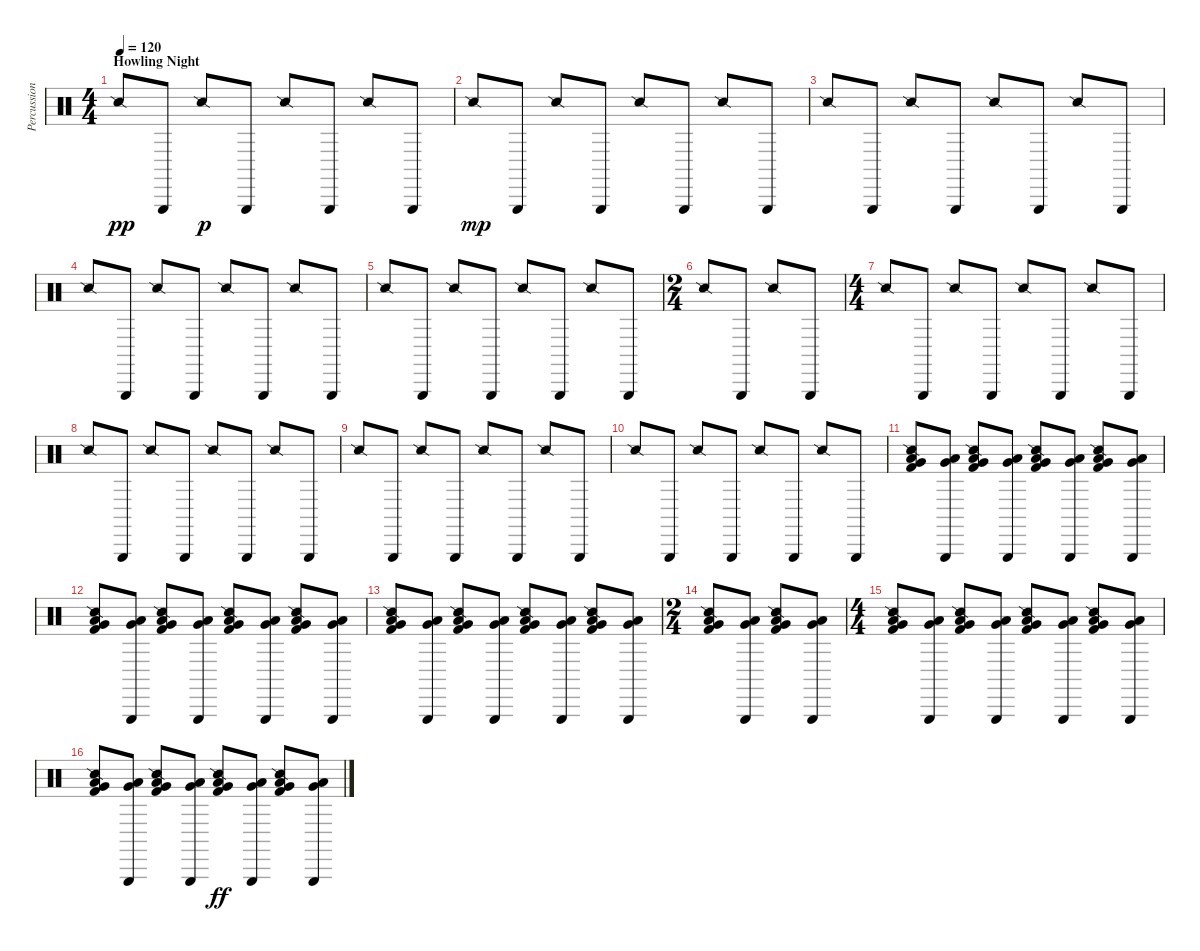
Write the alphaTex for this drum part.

\track ("Percussion" "Percussion") {instrument percussion}
\staff {score}
\articulation defaults
\ts (4 4)
\section ("" "Howling Night")
\tempo 120
\clef neutral
\ks c "Snare (side stick) 2".8{dy pp} "Triangle (hit)".8 "Snare (side stick) 2".8{dy p} "Triangle (hit)".8 "Snare (side stick) 2".8 "Triangle (hit)".8 "Snare (side stick) 2".8 "Triangle (hit)".8
|
"Snare (side stick) 2".8{dy mp} "Triangle (hit)".8 "Snare (side stick) 2".8 "Triangle (hit)".8 "Snare (side stick) 2".8 "Triangle (hit)".8 "Snare (side stick) 2".8 "Triangle (hit)".8 |
"Snare (side stick) 2".8 "Triangle (hit)".8 "Snare (side stick) 2".8 "Triangle (hit)".8 "Snare (side stick) 2".8 "Triangle (hit)".8 "Snare (side stick) 2".8 "Triangle (hit)".8 |
"Snare (side stick) 2".8 "Triangle (hit)".8 "Snare (side stick) 2".8 "Triangle (hit)".8 "Snare (side stick) 2".8 "Triangle (hit)".8 "Snare (side stick) 2".8 "Triangle (hit)".8 |
"Snare (side stick) 2".8 "Triangle (hit)".8 "Snare (side stick) 2".8 "Triangle (hit)".8 "Snare (side stick) 2".8 "Triangle (hit)".8 "Snare (side stick) 2".8 "Triangle (hit)".8 |
\ts (2 4)
"Snare (side stick) 2".8 "Triangle (hit)".8 "Snare (side stick) 2".8 "Triangle (hit)".8 |
\ts (4 4)
"Snare (side stick) 2".8 "Triangle (hit)".8 "Snare (side stick) 2".8 "Triangle (hit)".8 "Snare (side stick) 2".8 "Triangle (hit)".8 "Snare (side stick) 2".8 "Triangle (hit)".8 |
"Snare (side stick) 2".8 "Triangle (hit)".8 "Snare (side stick) 2".8 "Triangle (hit)".8 "Snare (side stick) 2".8 "Triangle (hit)".8 "Snare (side stick) 2".8 "Triangle (hit)".8 |
"Snare (side stick) 2".8 "Triangle (hit)".8 "Snare (side stick) 2".8 "Triangle (hit)".8 "Snare (side stick) 2".8 "Triangle (hit)".8 "Snare (side stick) 2".8 "Triangle (hit)".8 |
"Snare (side stick) 2".8 "Triangle (hit)".8 "Snare (side stick) 2".8 "Triangle (hit)".8 "Snare (side stick) 2".8 "Triangle (hit)".8 "Snare (side stick) 2".8 "Triangle (hit)".8 |
("Snare (side stick) 2" "Low Tom (hit)" "Very Low Tom (hit)" "Kick (hit) 2").8 ("Triangle (hit)" "Low Tom (hit)" "Very Low Tom (hit)").8 ("Snare (side stick) 2" "Low Tom (hit)" "Very Low Tom (hit)" "Kick (hit) 2").8 ("Triangle (hit)" "Low Tom (hit)" "Very Low Tom (hit)").8 ("Snare (side stick) 2" "Low Tom (hit)" "Very Low Tom (hit)" "Kick (hit) 2").8 ("Triangle (hit)" "Low Tom (hit)" "Very Low Tom (hit)").8 ("Snare (side stick) 2" "Low Tom (hit)" "Very Low Tom (hit)" "Kick (hit) 2").8 ("Triangle (hit)" "Low Tom (hit)" "Very Low Tom (hit)").8 |
("Snare (side stick) 2" "Low Tom (hit)" "Very Low Tom (hit)" "Kick (hit) 2").8 ("Triangle (hit)" "Low Tom (hit)" "Very Low Tom (hit)").8 ("Snare (side stick) 2" "Low Tom (hit)" "Very Low Tom (hit)" "Kick (hit) 2").8 ("Triangle (hit)" "Low Tom (hit)" "Very Low Tom (hit)").8 ("Snare (side stick) 2" "Low Tom (hit)" "Very Low Tom (hit)" "Kick (hit) 2").8 ("Triangle (hit)" "Low Tom (hit)" "Very Low Tom (hit)").8 ("Snare (side stick) 2" "Low Tom (hit)" "Very Low Tom (hit)" "Kick (hit) 2").8 ("Triangle (hit)" "Low Tom (hit)" "Very Low Tom (hit)").8 |
("Snare (side stick) 2" "Low Tom (hit)" "Very Low Tom (hit)" "Kick (hit) 2").8 ("Triangle (hit)" "Low Tom (hit)" "Very Low Tom (hit)").8 ("Snare (side stick) 2" "Low Tom (hit)" "Very Low Tom (hit)" "Kick (hit) 2").8 ("Triangle (hit)" "Low Tom (hit)" "Very Low Tom (hit)").8 ("Snare (side stick) 2" "Low Tom (hit)" "Very Low Tom (hit)" "Kick (hit) 2").8 ("Triangle (hit)" "Low Tom (hit)" "Very Low Tom (hit)").8 ("Snare (side stick) 2" "Low Tom (hit)" "Very Low Tom (hit)" "Kick (hit) 2").8 ("Triangle (hit)" "Low Tom (hit)" "Very Low Tom (hit)").8 |
\ts (2 4)
("Snare (side stick) 2" "Low Tom (hit)" "Very Low Tom (hit)" "Kick (hit) 2").8 ("Triangle (hit)" "Low Tom (hit)" "Very Low Tom (hit)").8 ("Snare (side stick) 2" "Low Tom (hit)" "Very Low Tom (hit)" "Kick (hit) 2").8 ("Triangle (hit)" "Low Tom (hit)" "Very Low Tom (hit)").8 |
\ts (4 4)
("Snare (side stick) 2" "Low Tom (hit)" "Very Low Tom (hit)" "Kick (hit) 2").8 ("Triangle (hit)" "Low Tom (hit)" "Very Low Tom (hit)").8 ("Snare (side stick) 2" "Low Tom (hit)" "Very Low Tom (hit)" "Kick (hit) 2").8 ("Triangle (hit)" "Low Tom (hit)" "Very Low Tom (hit)").8 ("Snare (side stick) 2" "Low Tom (hit)" "Very Low Tom (hit)" "Kick (hit) 2").8 ("Triangle (hit)" "Low Tom (hit)" "Very Low Tom (hit)").8 ("Snare (side stick) 2" "Low Tom (hit)" "Very Low Tom (hit)" "Kick (hit) 2").8 ("Triangle (hit)" "Low Tom (hit)" "Very Low Tom (hit)").8 |
("Snare (side stick) 2" "Low Tom (hit)" "Very Low Tom (hit)" "Kick (hit) 2").8 ("Triangle (hit)" "Low Tom (hit)" "Very Low Tom (hit)").8 ("Snare (side stick) 2" "Low Tom (hit)" "Very Low Tom (hit)" "Kick (hit) 2").8 ("Triangle (hit)" "Low Tom (hit)" "Very Low Tom (hit)").8 ("Snare (side stick) 2" "Low Tom (hit)" "Very Low Tom (hit)" "Kick (hit) 2").8{dy ff} ("Triangle (hit)" "Low Tom (hit)" "Very Low Tom (hit)").8 ("Snare (side stick) 2" "Low Tom (hit)" "Very Low Tom (hit)" "Kick (hit) 2").8 ("Triangle (hit)" "Low Tom (hit)" "Very Low Tom (hit)").8
